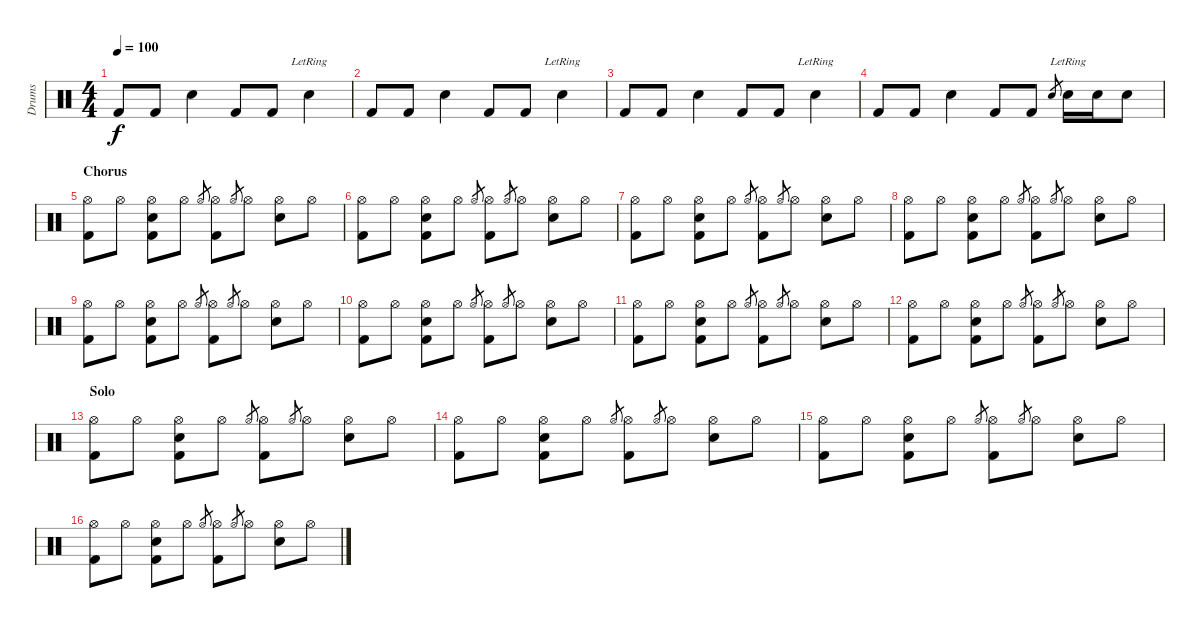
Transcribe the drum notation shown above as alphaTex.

\track ("Drums" "Drums") {instrument percussion}
\staff {score}
\articulation defaults
\ts (4 4)
\tempo 100
\clef neutral
\ks c "Kick (hit) 2".8{dy f} "Kick (hit) 2".8 "Electric Snare (hit)".4 "Kick (hit) 2".8 "Kick (hit) 2".8 "Electric Snare (hit)"{lr}.4
|
"Kick (hit) 2".8 "Kick (hit) 2".8 "Electric Snare (hit)".4 "Kick (hit) 2".8 "Kick (hit) 2".8 "Electric Snare (hit)"{lr}.4 |
"Kick (hit) 2".8 "Kick (hit) 2".8 "Electric Snare (hit)".4 "Kick (hit) 2".8 "Kick (hit) 2".8 "Electric Snare (hit)"{lr}.4 |
"Kick (hit) 2".8 "Kick (hit) 2".8 "Electric Snare (hit)".4 "Kick (hit) 2".8 "Kick (hit) 2".8 "Electric Snare (hit)".8{gr} "Electric Snare (hit)"{lr}.16 "Electric Snare (hit)".16 "Electric Snare (hit)".8 |
\section ("" "Chorus")
("Hi-Hat (open)" "Kick (hit) 2").8 "Hi-Hat (open)".8 ("Electric Snare (hit)" "Hi-Hat (open)" "Kick (hit) 2").8 "Hi-Hat (open)".8 "Hi-Hat (open)".8{gr} ("Hi-Hat (open)" "Kick (hit) 2").8 "Hi-Hat (open)".8{gr} "Hi-Hat (open)".8 ("Electric Snare (hit)" "Hi-Hat (open)").8 "Hi-Hat (open)".8 |
("Hi-Hat (open)" "Kick (hit) 2").8 "Hi-Hat (open)".8 ("Electric Snare (hit)" "Hi-Hat (open)" "Kick (hit) 2").8 "Hi-Hat (open)".8 "Hi-Hat (open)".8{gr} ("Hi-Hat (open)" "Kick (hit) 2").8 "Hi-Hat (open)".8{gr} "Hi-Hat (open)".8 ("Electric Snare (hit)" "Hi-Hat (open)").8 "Hi-Hat (open)".8 |
("Hi-Hat (open)" "Kick (hit) 2").8 "Hi-Hat (open)".8 ("Electric Snare (hit)" "Hi-Hat (open)" "Kick (hit) 2").8 "Hi-Hat (open)".8 "Hi-Hat (open)".8{gr} ("Hi-Hat (open)" "Kick (hit) 2").8 "Hi-Hat (open)".8{gr} "Hi-Hat (open)".8 ("Electric Snare (hit)" "Hi-Hat (open)").8 "Hi-Hat (open)".8 |
("Hi-Hat (open)" "Kick (hit) 2").8 "Hi-Hat (open)".8 ("Electric Snare (hit)" "Hi-Hat (open)" "Kick (hit) 2").8 "Hi-Hat (open)".8 "Hi-Hat (open)".8{gr} ("Hi-Hat (open)" "Kick (hit) 2").8 "Hi-Hat (open)".8{gr} "Hi-Hat (open)".8 ("Electric Snare (hit)" "Hi-Hat (open)").8 "Hi-Hat (open)".8 |
("Hi-Hat (open)" "Kick (hit) 2").8 "Hi-Hat (open)".8 ("Electric Snare (hit)" "Hi-Hat (open)" "Kick (hit) 2").8 "Hi-Hat (open)".8 "Hi-Hat (open)".8{gr} ("Hi-Hat (open)" "Kick (hit) 2").8 "Hi-Hat (open)".8{gr} "Hi-Hat (open)".8 ("Electric Snare (hit)" "Hi-Hat (open)").8 "Hi-Hat (open)".8 |
("Hi-Hat (open)" "Kick (hit) 2").8 "Hi-Hat (open)".8 ("Electric Snare (hit)" "Hi-Hat (open)" "Kick (hit) 2").8 "Hi-Hat (open)".8 "Hi-Hat (open)".8{gr} ("Hi-Hat (open)" "Kick (hit) 2").8 "Hi-Hat (open)".8{gr} "Hi-Hat (open)".8 ("Electric Snare (hit)" "Hi-Hat (open)").8 "Hi-Hat (open)".8 |
("Hi-Hat (open)" "Kick (hit) 2").8 "Hi-Hat (open)".8 ("Electric Snare (hit)" "Hi-Hat (open)" "Kick (hit) 2").8 "Hi-Hat (open)".8 "Hi-Hat (open)".8{gr} ("Hi-Hat (open)" "Kick (hit) 2").8 "Hi-Hat (open)".8{gr} "Hi-Hat (open)".8 ("Electric Snare (hit)" "Hi-Hat (open)").8 "Hi-Hat (open)".8 |
("Hi-Hat (open)" "Kick (hit) 2").8 "Hi-Hat (open)".8 ("Electric Snare (hit)" "Hi-Hat (open)" "Kick (hit) 2").8 "Hi-Hat (open)".8 "Hi-Hat (open)".8{gr} ("Hi-Hat (open)" "Kick (hit) 2").8 "Hi-Hat (open)".8{gr} "Hi-Hat (open)".8 ("Electric Snare (hit)" "Hi-Hat (open)").8 "Hi-Hat (open)".8 |
\section ("" "Solo")
("Hi-Hat (open)" "Kick (hit) 2").8 "Hi-Hat (open)".8 ("Electric Snare (hit)" "Hi-Hat (open)" "Kick (hit) 2").8 "Hi-Hat (open)".8 "Hi-Hat (open)".8{gr} ("Hi-Hat (open)" "Kick (hit) 2").8 "Hi-Hat (open)".8{gr} "Hi-Hat (open)".8 ("Electric Snare (hit)" "Hi-Hat (open)").8 "Hi-Hat (open)".8 |
("Hi-Hat (open)" "Kick (hit) 2").8 "Hi-Hat (open)".8 ("Electric Snare (hit)" "Hi-Hat (open)" "Kick (hit) 2").8 "Hi-Hat (open)".8 "Hi-Hat (open)".8{gr} ("Hi-Hat (open)" "Kick (hit) 2").8 "Hi-Hat (open)".8{gr} "Hi-Hat (open)".8 ("Electric Snare (hit)" "Hi-Hat (open)").8 "Hi-Hat (open)".8 |
("Hi-Hat (open)" "Kick (hit) 2").8 "Hi-Hat (open)".8 ("Electric Snare (hit)" "Hi-Hat (open)" "Kick (hit) 2").8 "Hi-Hat (open)".8 "Hi-Hat (open)".8{gr} ("Hi-Hat (open)" "Kick (hit) 2").8 "Hi-Hat (open)".8{gr} "Hi-Hat (open)".8 ("Electric Snare (hit)" "Hi-Hat (open)").8 "Hi-Hat (open)".8 |
("Hi-Hat (open)" "Kick (hit) 2").8 "Hi-Hat (open)".8 ("Electric Snare (hit)" "Hi-Hat (open)" "Kick (hit) 2").8 "Hi-Hat (open)".8 "Hi-Hat (open)".8{gr} ("Hi-Hat (open)" "Kick (hit) 2").8 "Hi-Hat (open)".8{gr} "Hi-Hat (open)".8 ("Electric Snare (hit)" "Hi-Hat (open)").8 "Hi-Hat (open)".8
